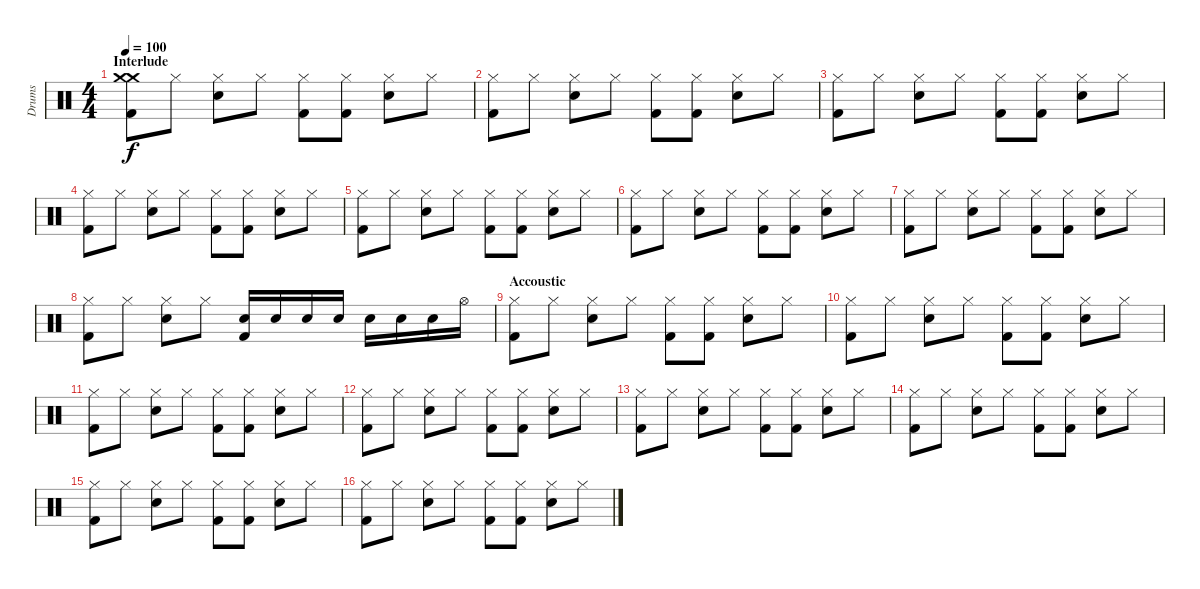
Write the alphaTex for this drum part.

\track ("Drums" "Drums") {instrument percussion}
\staff {score}
\articulation defaults
\ts (4 4)
\section ("" "Interlude")
\tempo 100
\clef neutral
\ks c
("Crash medium (hit)" "Crash medium (hit)" "Kick (hit) 2").8{dy f} "Hi-Hat (closed)".8 ("Hi-Hat (closed)" "Electric Snare (hit)").8 "Hi-Hat (closed)".8 ("Hi-Hat (closed)" "Kick (hit) 2").8 ("Hi-Hat (closed)" "Kick (hit) 2").8 ("Hi-Hat (closed)" "Electric Snare (hit)").8 "Hi-Hat (closed)".8 |
("Hi-Hat (closed)" "Kick (hit) 2").8 "Hi-Hat (closed)".8 ("Hi-Hat (closed)" "Electric Snare (hit)").8 "Hi-Hat (closed)".8 ("Hi-Hat (closed)" "Kick (hit) 2").8 ("Hi-Hat (closed)" "Kick (hit) 2").8 ("Hi-Hat (closed)" "Electric Snare (hit)").8 "Hi-Hat (closed)".8 |
("Hi-Hat (closed)" "Kick (hit) 2").8 "Hi-Hat (closed)".8 ("Hi-Hat (closed)" "Electric Snare (hit)").8 "Hi-Hat (closed)".8 ("Hi-Hat (closed)" "Kick (hit) 2").8 ("Hi-Hat (closed)" "Kick (hit) 2").8 ("Hi-Hat (closed)" "Electric Snare (hit)").8 "Hi-Hat (closed)".8 |
("Hi-Hat (closed)" "Kick (hit) 2").8 "Hi-Hat (closed)".8 ("Hi-Hat (closed)" "Electric Snare (hit)").8 "Hi-Hat (closed)".8 ("Hi-Hat (closed)" "Kick (hit) 2").8 ("Hi-Hat (closed)" "Kick (hit) 2").8 ("Hi-Hat (closed)" "Electric Snare (hit)").8 "Hi-Hat (closed)".8 |
("Hi-Hat (closed)" "Kick (hit) 2").8 "Hi-Hat (closed)".8 ("Hi-Hat (closed)" "Electric Snare (hit)").8 "Hi-Hat (closed)".8 ("Hi-Hat (closed)" "Kick (hit) 2").8 ("Hi-Hat (closed)" "Kick (hit) 2").8 ("Hi-Hat (closed)" "Electric Snare (hit)").8 "Hi-Hat (closed)".8 |
("Hi-Hat (closed)" "Kick (hit) 2").8 "Hi-Hat (closed)".8 ("Hi-Hat (closed)" "Electric Snare (hit)").8 "Hi-Hat (closed)".8 ("Hi-Hat (closed)" "Kick (hit) 2").8 ("Hi-Hat (closed)" "Kick (hit) 2").8 ("Hi-Hat (closed)" "Electric Snare (hit)").8 "Hi-Hat (closed)".8 |
("Hi-Hat (closed)" "Kick (hit) 2").8 "Hi-Hat (closed)".8 ("Hi-Hat (closed)" "Electric Snare (hit)").8 "Hi-Hat (closed)".8 ("Hi-Hat (closed)" "Kick (hit) 2").8 ("Hi-Hat (closed)" "Kick (hit) 2").8 ("Hi-Hat (closed)" "Electric Snare (hit)").8 "Hi-Hat (closed)".8 |
("Hi-Hat (closed)" "Kick (hit) 2").8 "Hi-Hat (closed)".8 ("Hi-Hat (closed)" "Electric Snare (hit)").8 "Hi-Hat (closed)".8 ("Electric Snare (hit)" "Kick (hit) 2").16 "Electric Snare (hit)".16 "Electric Snare (hit)".16 "Electric Snare (hit)".16 "Electric Snare (hit)".16 "Electric Snare (hit)".16 "Electric Snare (hit)".16 "Hi-Hat (open)".16 |
\section ("" "Accoustic")
("Hi-Hat (closed)" "Kick (hit) 2").8 "Hi-Hat (closed)".8 ("Hi-Hat (closed)" "Electric Snare (hit)").8 "Hi-Hat (closed)".8 ("Hi-Hat (closed)" "Kick (hit) 2").8 ("Hi-Hat (closed)" "Kick (hit) 2").8 ("Hi-Hat (closed)" "Electric Snare (hit)").8 "Hi-Hat (closed)".8 |
("Hi-Hat (closed)" "Kick (hit) 2").8 "Hi-Hat (closed)".8 ("Hi-Hat (closed)" "Electric Snare (hit)").8 "Hi-Hat (closed)".8 ("Hi-Hat (closed)" "Kick (hit) 2").8 ("Hi-Hat (closed)" "Kick (hit) 2").8 ("Hi-Hat (closed)" "Electric Snare (hit)").8 "Hi-Hat (closed)".8 |
("Hi-Hat (closed)" "Kick (hit) 2").8 "Hi-Hat (closed)".8 ("Hi-Hat (closed)" "Electric Snare (hit)").8 "Hi-Hat (closed)".8 ("Hi-Hat (closed)" "Kick (hit) 2").8 ("Hi-Hat (closed)" "Kick (hit) 2").8 ("Hi-Hat (closed)" "Electric Snare (hit)").8 "Hi-Hat (closed)".8 |
("Hi-Hat (closed)" "Kick (hit) 2").8 "Hi-Hat (closed)".8 ("Hi-Hat (closed)" "Electric Snare (hit)").8 "Hi-Hat (closed)".8 ("Hi-Hat (closed)" "Kick (hit) 2").8 ("Hi-Hat (closed)" "Kick (hit) 2").8 ("Hi-Hat (closed)" "Electric Snare (hit)").8 "Hi-Hat (closed)".8 |
("Hi-Hat (closed)" "Kick (hit) 2").8 "Hi-Hat (closed)".8 ("Hi-Hat (closed)" "Electric Snare (hit)").8 "Hi-Hat (closed)".8 ("Hi-Hat (closed)" "Kick (hit) 2").8 ("Hi-Hat (closed)" "Kick (hit) 2").8 ("Hi-Hat (closed)" "Electric Snare (hit)").8 "Hi-Hat (closed)".8 |
("Hi-Hat (closed)" "Kick (hit) 2").8 "Hi-Hat (closed)".8 ("Hi-Hat (closed)" "Electric Snare (hit)").8 "Hi-Hat (closed)".8 ("Hi-Hat (closed)" "Kick (hit) 2").8 ("Hi-Hat (closed)" "Kick (hit) 2").8 ("Hi-Hat (closed)" "Electric Snare (hit)").8 "Hi-Hat (closed)".8 |
("Hi-Hat (closed)" "Kick (hit) 2").8 "Hi-Hat (closed)".8 ("Hi-Hat (closed)" "Electric Snare (hit)").8 "Hi-Hat (closed)".8 ("Hi-Hat (closed)" "Kick (hit) 2").8 ("Hi-Hat (closed)" "Kick (hit) 2").8 ("Hi-Hat (closed)" "Electric Snare (hit)").8 "Hi-Hat (closed)".8 |
("Hi-Hat (closed)" "Kick (hit) 2").8 "Hi-Hat (closed)".8 ("Hi-Hat (closed)" "Electric Snare (hit)").8 "Hi-Hat (closed)".8 ("Hi-Hat (closed)" "Kick (hit) 2").8 ("Hi-Hat (closed)" "Kick (hit) 2").8 ("Hi-Hat (closed)" "Electric Snare (hit)").8 "Hi-Hat (closed)".8
